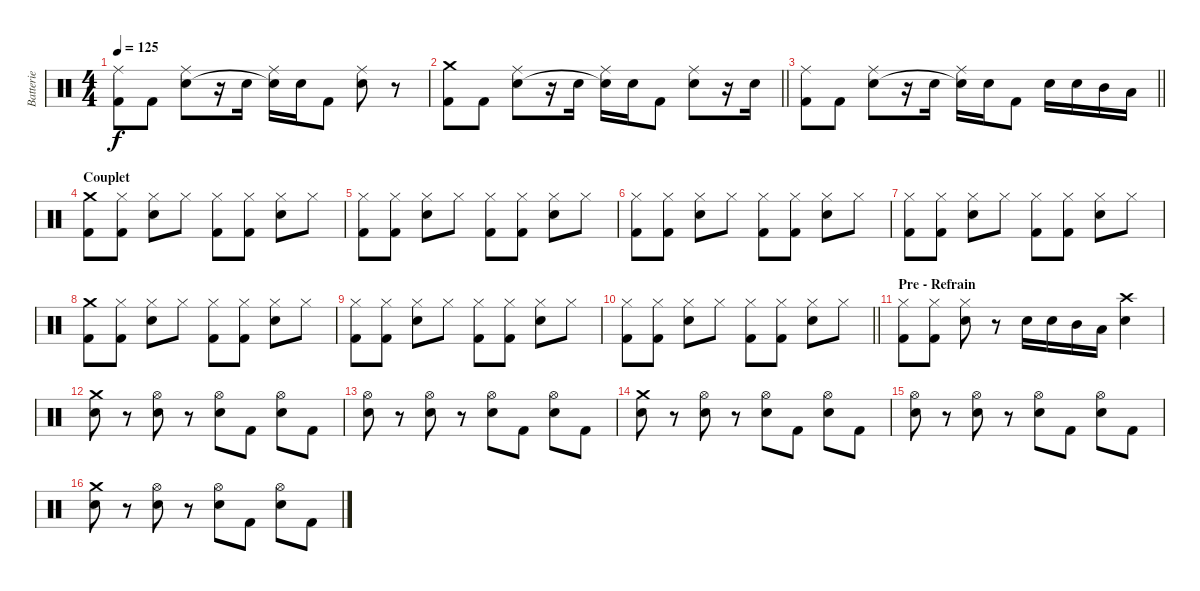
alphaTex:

\track ("Batterie" "Batterie") {instrument percussion}
\staff {score}
\articulation defaults
\ts (4 4)
\tempo 125
\clef neutral
\ks c
("Ride (middle)" "Kick (hit) 2").8{dy f} "Kick (hit) 2".8 ("Ride (middle)" "Electric Snare (hit)").8 r.16 "Electric Snare (hit)".16 ("Ride (middle)" "Electric Snare (hit)"{t}).16 "Electric Snare (hit)".16 "Kick (hit) 2".8 ("Ride (middle)" "Electric Snare (hit)").8 r.8 |
\barLineRight lightlight
("Crash medium (hit)" "Kick (hit) 2").8 "Kick (hit) 2".8 ("Ride (middle)" "Electric Snare (hit)").8 r.16 "Electric Snare (hit)".16 ("Ride (middle)" "Electric Snare (hit)"{t}).16 "Electric Snare (hit)".16 "Kick (hit) 2".8 ("Ride (middle)" "Electric Snare (hit)").8 r.16 "Electric Snare (hit)".16 |
\barLineRight lightlight
("Ride (middle)" "Kick (hit) 2").8 "Kick (hit) 2".8 ("Ride (middle)" "Electric Snare (hit)").8 r.16 "Electric Snare (hit)".16 ("Ride (middle)" "Electric Snare (hit)"{t}).16 "Electric Snare (hit)".16 "Kick (hit) 2".8 "Electric Snare (hit)".16 "Electric Snare (hit)".16 "Mid Tom (hit)".16 "Low Tom (hit)".16 |
\section ("" "Couplet")
("Crash medium (hit)" "Kick (hit) 2").8 ("Hi-Hat (closed)" "Kick (hit) 2").8 ("Hi-Hat (closed)" "Electric Snare (hit)").8 "Hi-Hat (closed)".8 ("Hi-Hat (closed)" "Kick (hit) 2").8 ("Hi-Hat (closed)" "Kick (hit) 2").8 ("Hi-Hat (closed)" "Electric Snare (hit)").8 "Hi-Hat (closed)".8 |
("Hi-Hat (closed)" "Kick (hit) 2").8 ("Hi-Hat (closed)" "Kick (hit) 2").8 ("Hi-Hat (closed)" "Electric Snare (hit)").8 "Hi-Hat (closed)".8 ("Hi-Hat (closed)" "Kick (hit) 2").8 ("Hi-Hat (closed)" "Kick (hit) 2").8 ("Hi-Hat (closed)" "Electric Snare (hit)").8 "Hi-Hat (closed)".8 |
("Hi-Hat (closed)" "Kick (hit) 2").8 ("Hi-Hat (closed)" "Kick (hit) 2").8 ("Hi-Hat (closed)" "Electric Snare (hit)").8 "Hi-Hat (closed)".8 ("Hi-Hat (closed)" "Kick (hit) 2").8 ("Hi-Hat (closed)" "Kick (hit) 2").8 ("Hi-Hat (closed)" "Electric Snare (hit)").8 "Hi-Hat (closed)".8 |
("Hi-Hat (closed)" "Kick (hit) 2").8 ("Hi-Hat (closed)" "Kick (hit) 2").8 ("Hi-Hat (closed)" "Electric Snare (hit)").8 "Hi-Hat (closed)".8 ("Hi-Hat (closed)" "Kick (hit) 2").8 ("Hi-Hat (closed)" "Kick (hit) 2").8 ("Hi-Hat (closed)" "Electric Snare (hit)").8 "Hi-Hat (closed)".8 |
("Crash medium (hit)" "Kick (hit) 2").8 ("Hi-Hat (closed)" "Kick (hit) 2").8 ("Hi-Hat (closed)" "Electric Snare (hit)").8 "Hi-Hat (closed)".8 ("Hi-Hat (closed)" "Kick (hit) 2").8 ("Hi-Hat (closed)" "Kick (hit) 2").8 ("Hi-Hat (closed)" "Electric Snare (hit)").8 "Hi-Hat (closed)".8 |
("Hi-Hat (closed)" "Kick (hit) 2").8 ("Hi-Hat (closed)" "Kick (hit) 2").8 ("Hi-Hat (closed)" "Electric Snare (hit)").8 "Hi-Hat (closed)".8 ("Hi-Hat (closed)" "Kick (hit) 2").8 ("Hi-Hat (closed)" "Kick (hit) 2").8 ("Hi-Hat (closed)" "Electric Snare (hit)").8 "Hi-Hat (closed)".8 |
\barLineRight lightlight
("Hi-Hat (closed)" "Kick (hit) 2").8 ("Hi-Hat (closed)" "Kick (hit) 2").8 ("Hi-Hat (closed)" "Electric Snare (hit)").8 "Hi-Hat (closed)".8 ("Hi-Hat (closed)" "Kick (hit) 2").8 ("Hi-Hat (closed)" "Kick (hit) 2").8 ("Hi-Hat (closed)" "Electric Snare (hit)").8 "Hi-Hat (closed)".8 |
\section ("" "Pre - Refrain")
("Hi-Hat (closed)" "Kick (hit) 2").8 ("Hi-Hat (closed)" "Kick (hit) 2").8 ("Hi-Hat (closed)" "Electric Snare (hit)").8 r.8 "Electric Snare (hit)".16 "Electric Snare (hit)".16 "Mid Tom (hit)".16 "Low Tom (hit)".16 ("Crash high (hit)" "Electric Snare (hit)").4 |
("Crash medium (hit)" "Electric Snare (hit)").8 r.8 ("Hi-Hat (open)" "Electric Snare (hit)").8 r.8 ("Hi-Hat (open)" "Electric Snare (hit)").8 "Kick (hit) 2".8 ("Hi-Hat (open)" "Electric Snare (hit)").8 "Kick (hit) 2".8 |
("Hi-Hat (open)" "Electric Snare (hit)").8 r.8 ("Hi-Hat (open)" "Electric Snare (hit)").8 r.8 ("Hi-Hat (open)" "Electric Snare (hit)").8 "Kick (hit) 2".8 ("Hi-Hat (open)" "Electric Snare (hit)").8 "Kick (hit) 2".8 |
("Crash medium (hit)" "Electric Snare (hit)").8 r.8 ("Hi-Hat (open)" "Electric Snare (hit)").8 r.8 ("Hi-Hat (open)" "Electric Snare (hit)").8 "Kick (hit) 2".8 ("Hi-Hat (open)" "Electric Snare (hit)").8 "Kick (hit) 2".8 |
("Hi-Hat (open)" "Electric Snare (hit)").8 r.8 ("Hi-Hat (open)" "Electric Snare (hit)").8 r.8 ("Hi-Hat (open)" "Electric Snare (hit)").8 "Kick (hit) 2".8 ("Hi-Hat (open)" "Electric Snare (hit)").8 "Kick (hit) 2".8 |
("Crash medium (hit)" "Electric Snare (hit)").8 r.8 ("Hi-Hat (open)" "Electric Snare (hit)").8 r.8 ("Hi-Hat (open)" "Electric Snare (hit)").8 "Kick (hit) 2".8 ("Hi-Hat (open)" "Electric Snare (hit)").8 "Kick (hit) 2".8
